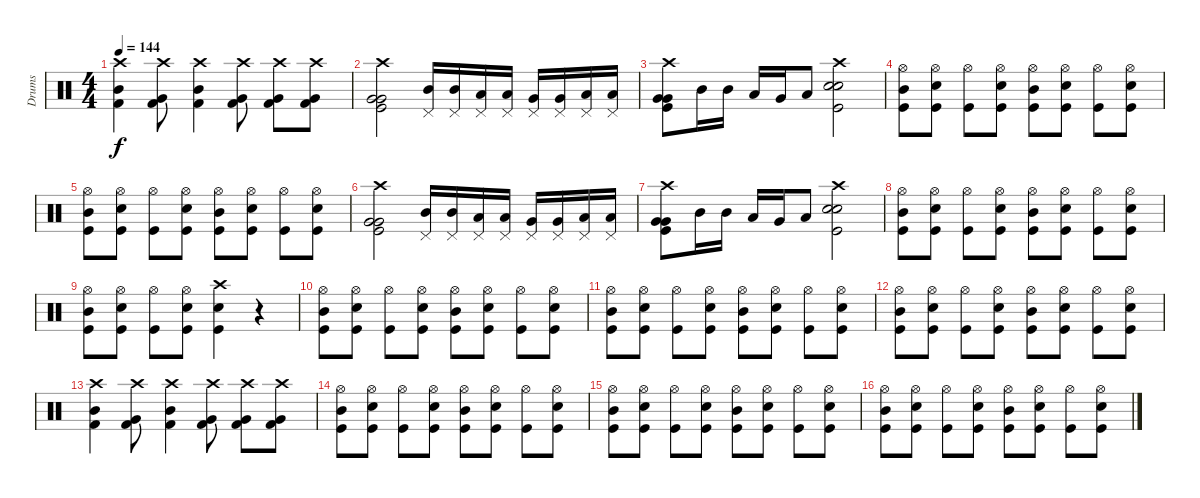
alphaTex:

\track ("Drums" "Drums") {instrument percussion}
\staff {score}
\articulation defaults
\ts (4 4)
\tempo 144
\clef neutral
\ks c
("Crash high (hit)" "Kick (hit) 2" "Mid Tom (hit)").4{dy f} ("Crash high (hit)" "Kick (hit) 2" "Very Low Tom (hit)").8 ("Crash high (hit)" "Kick (hit) 2" "Mid Tom (hit)").4 ("Crash high (hit)" "Kick (hit) 2" "Very Low Tom (hit)").8 ("Crash high (hit)" "Kick (hit) 2" "Very Low Tom (hit)").8 ("Crash high (hit)" "Kick (hit) 2" "Very Low Tom (hit)").8 |
("Crash high (hit)" "Very Low Tom (hit)" "Very Low Tom (hit)" "Kick (hit)").2 ("Mid Tom (hit)" "Pedal Hi-Hat (hit)").16 ("Mid Tom (hit)" "Pedal Hi-Hat (hit)").16 ("Low Tom (hit)" "Pedal Hi-Hat (hit)").16 ("Low Tom (hit)" "Pedal Hi-Hat (hit)").16 ("Very Low Tom (hit)" "Pedal Hi-Hat (hit)").16 ("Very Low Tom (hit)" "Pedal Hi-Hat (hit)").16 ("Low Floor Tom (hit)" "Pedal Hi-Hat (hit)").16 ("Low Floor Tom (hit)" "Pedal Hi-Hat (hit)").16 |
("Crash high (hit)" "Very Low Tom (hit)" "Very Low Tom (hit)" "Kick (hit)").8 "Mid Tom (hit)".16 "Mid Tom (hit)".16 "Low Tom (hit)".16 "Very Low Tom (hit)".16 "Low Floor Tom (hit)".8 ("Snare (hit) 2" "Snare (hit) 2" "Kick (hit)" "Crash high (hit)").2 |
("Hi-Hat (open)" "Kick (hit)" "Mid Tom (hit)").8 ("Hi-Hat (open)" "Kick (hit)" "Snare (hit) 2").8 ("Hi-Hat (open)" "Kick (hit)").8 ("Hi-Hat (open)" "Kick (hit)" "Snare (hit) 2").8 ("Hi-Hat (open)" "Kick (hit)" "Mid Tom (hit)").8 ("Hi-Hat (open)" "Kick (hit)" "Snare (hit) 2").8 ("Hi-Hat (open)" "Kick (hit)").8 ("Hi-Hat (open)" "Kick (hit)" "Snare (hit) 2").8 |
("Hi-Hat (open)" "Kick (hit)" "Mid Tom (hit)").8 ("Hi-Hat (open)" "Kick (hit)" "Snare (hit) 2").8 ("Hi-Hat (open)" "Kick (hit)").8 ("Hi-Hat (open)" "Kick (hit)" "Snare (hit) 2").8 ("Hi-Hat (open)" "Kick (hit)" "Mid Tom (hit)").8 ("Hi-Hat (open)" "Kick (hit)" "Snare (hit) 2").8 ("Hi-Hat (open)" "Kick (hit)").8 ("Hi-Hat (open)" "Kick (hit)" "Snare (hit) 2").8 |
("Crash high (hit)" "Very Low Tom (hit)" "Very Low Tom (hit)" "Kick (hit)").2 ("Mid Tom (hit)" "Pedal Hi-Hat (hit)").16 ("Mid Tom (hit)" "Pedal Hi-Hat (hit)").16 ("Low Tom (hit)" "Pedal Hi-Hat (hit)").16 ("Low Tom (hit)" "Pedal Hi-Hat (hit)").16 ("Very Low Tom (hit)" "Pedal Hi-Hat (hit)").16 ("Very Low Tom (hit)" "Pedal Hi-Hat (hit)").16 ("Low Floor Tom (hit)" "Pedal Hi-Hat (hit)").16 ("Low Floor Tom (hit)" "Pedal Hi-Hat (hit)").16 |
("Crash high (hit)" "Very Low Tom (hit)" "Very Low Tom (hit)" "Kick (hit)").8 "Mid Tom (hit)".16 "Mid Tom (hit)".16 "Low Tom (hit)".16 "Very Low Tom (hit)".16 "Low Floor Tom (hit)".8 ("Snare (hit) 2" "Snare (hit) 2" "Kick (hit)" "Crash high (hit)").2 |
("Hi-Hat (open)" "Kick (hit)" "Mid Tom (hit)").8 ("Hi-Hat (open)" "Kick (hit)" "Snare (hit) 2").8 ("Hi-Hat (open)" "Kick (hit)").8 ("Hi-Hat (open)" "Kick (hit)" "Snare (hit) 2").8 ("Hi-Hat (open)" "Kick (hit)" "Mid Tom (hit)").8 ("Hi-Hat (open)" "Kick (hit)" "Snare (hit) 2").8 ("Hi-Hat (open)" "Kick (hit)").8 ("Hi-Hat (open)" "Kick (hit)" "Snare (hit) 2").8 |
("Hi-Hat (open)" "Kick (hit)" "Mid Tom (hit)").8 ("Hi-Hat (open)" "Kick (hit)" "Snare (hit) 2").8 ("Hi-Hat (open)" "Kick (hit)").8 ("Hi-Hat (open)" "Kick (hit)" "Snare (hit) 2").8 ("Crash high (hit)" "Snare (hit) 2" "Kick (hit)").4 r.4 |
("Hi-Hat (open)" "Kick (hit)" "Mid Tom (hit)").8 ("Hi-Hat (open)" "Kick (hit)" "Snare (hit) 2").8 ("Hi-Hat (open)" "Kick (hit)").8 ("Hi-Hat (open)" "Kick (hit)" "Snare (hit) 2").8 ("Hi-Hat (open)" "Kick (hit)" "Mid Tom (hit)").8 ("Hi-Hat (open)" "Kick (hit)" "Snare (hit) 2").8 ("Hi-Hat (open)" "Kick (hit)").8 ("Hi-Hat (open)" "Kick (hit)" "Snare (hit) 2").8 |
("Hi-Hat (open)" "Kick (hit)" "Mid Tom (hit)").8 ("Hi-Hat (open)" "Kick (hit)" "Snare (hit) 2").8 ("Hi-Hat (open)" "Kick (hit)").8 ("Hi-Hat (open)" "Kick (hit)" "Snare (hit) 2").8 ("Hi-Hat (open)" "Kick (hit)" "Mid Tom (hit)").8 ("Hi-Hat (open)" "Kick (hit)" "Snare (hit) 2").8 ("Hi-Hat (open)" "Kick (hit)").8 ("Hi-Hat (open)" "Kick (hit)" "Snare (hit) 2").8 |
("Hi-Hat (open)" "Kick (hit)" "Mid Tom (hit)").8 ("Hi-Hat (open)" "Kick (hit)" "Snare (hit) 2").8 ("Hi-Hat (open)" "Kick (hit)").8 ("Hi-Hat (open)" "Kick (hit)" "Snare (hit) 2").8 ("Hi-Hat (open)" "Kick (hit)" "Mid Tom (hit)").8 ("Hi-Hat (open)" "Kick (hit)" "Snare (hit) 2").8 ("Hi-Hat (open)" "Kick (hit)").8 ("Hi-Hat (open)" "Kick (hit)" "Snare (hit) 2").8 |
("Crash high (hit)" "Kick (hit) 2" "Mid Tom (hit)").4 ("Crash high (hit)" "Kick (hit) 2" "Very Low Tom (hit)").8 ("Crash high (hit)" "Kick (hit) 2" "Mid Tom (hit)").4 ("Crash high (hit)" "Kick (hit) 2" "Very Low Tom (hit)").8 ("Crash high (hit)" "Kick (hit) 2" "Very Low Tom (hit)").8 ("Crash high (hit)" "Kick (hit) 2" "Very Low Tom (hit)").8 |
("Hi-Hat (open)" "Kick (hit)" "Mid Tom (hit)").8 ("Hi-Hat (open)" "Kick (hit)" "Snare (hit) 2").8 ("Hi-Hat (open)" "Kick (hit)").8 ("Hi-Hat (open)" "Kick (hit)" "Snare (hit) 2").8 ("Hi-Hat (open)" "Kick (hit)" "Mid Tom (hit)").8 ("Hi-Hat (open)" "Kick (hit)" "Snare (hit) 2").8 ("Hi-Hat (open)" "Kick (hit)").8 ("Hi-Hat (open)" "Kick (hit)" "Snare (hit) 2").8 |
("Hi-Hat (open)" "Kick (hit)" "Mid Tom (hit)").8 ("Hi-Hat (open)" "Kick (hit)" "Snare (hit) 2").8 ("Hi-Hat (open)" "Kick (hit)").8 ("Hi-Hat (open)" "Kick (hit)" "Snare (hit) 2").8 ("Hi-Hat (open)" "Kick (hit)" "Mid Tom (hit)").8 ("Hi-Hat (open)" "Kick (hit)" "Snare (hit) 2").8 ("Hi-Hat (open)" "Kick (hit)").8 ("Hi-Hat (open)" "Kick (hit)" "Snare (hit) 2").8 |
("Hi-Hat (open)" "Kick (hit)" "Mid Tom (hit)").8 ("Hi-Hat (open)" "Kick (hit)" "Snare (hit) 2").8 ("Hi-Hat (open)" "Kick (hit)").8 ("Hi-Hat (open)" "Kick (hit)" "Snare (hit) 2").8 ("Hi-Hat (open)" "Kick (hit)" "Mid Tom (hit)").8 ("Hi-Hat (open)" "Kick (hit)" "Snare (hit) 2").8 ("Hi-Hat (open)" "Kick (hit)").8 ("Hi-Hat (open)" "Kick (hit)" "Snare (hit) 2").8
